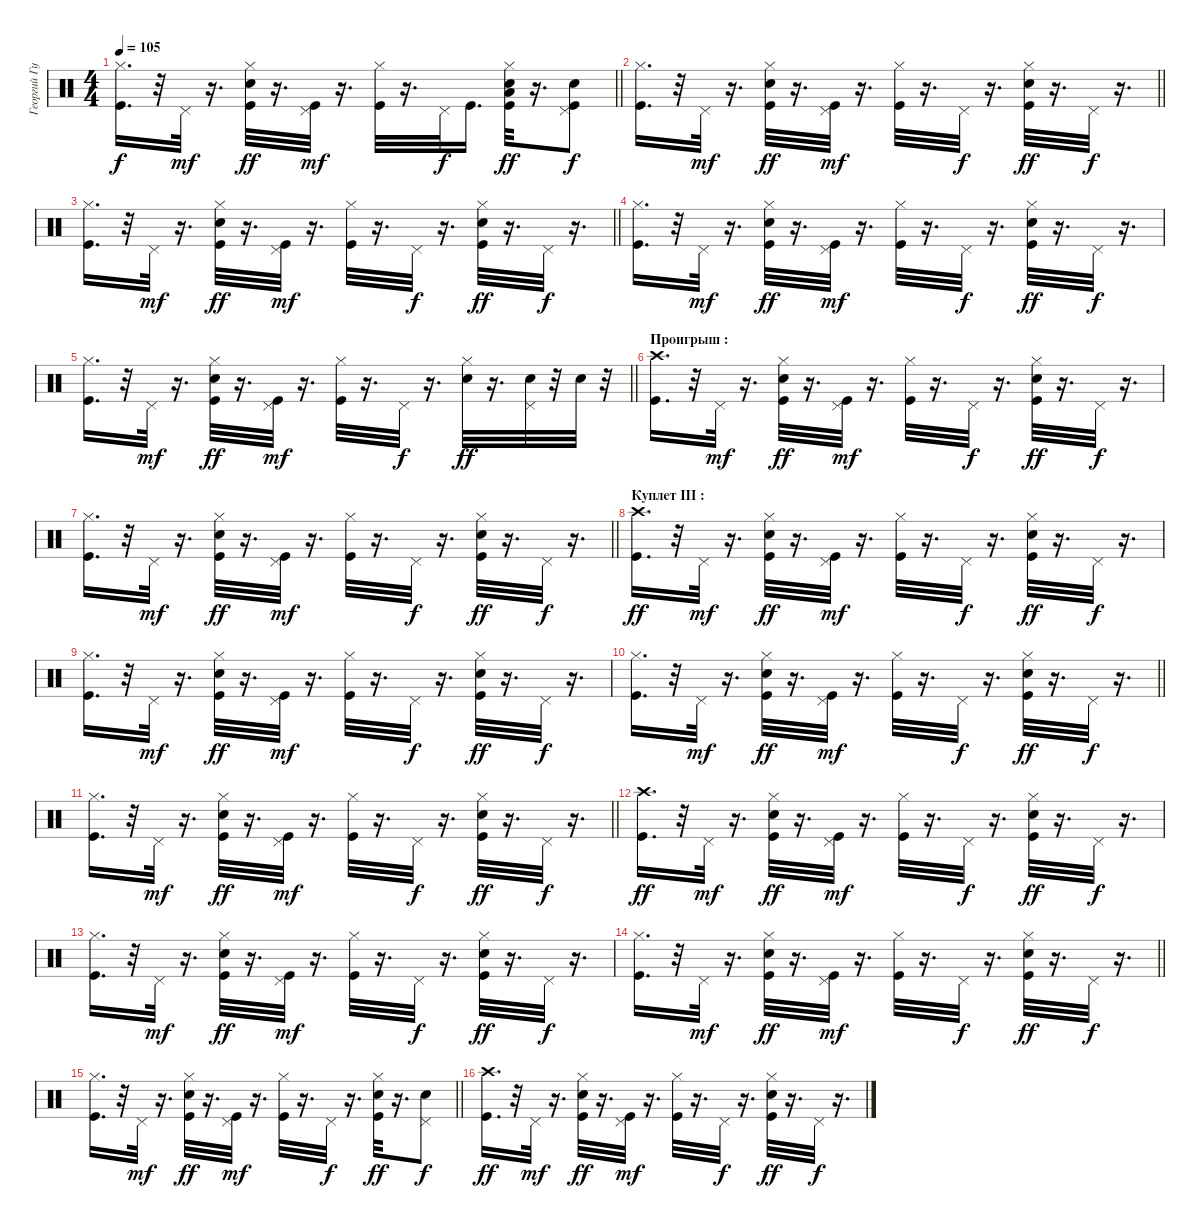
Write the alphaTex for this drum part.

\track ("Георгий Гурьянов" "Георгий Гу") {instrument percussion}
\staff {score}
\articulation defaults
\ts (4 4)
\tempo 105
\clef neutral
\barLineRight lightlight
\ks c
("Hi-Hat (closed)" "Kick (hit)").16{d dy f} r.32 "Pedal Hi-Hat (hit)".32{dy mf} r.16{d} ("Hi-Hat (closed)" "Snare (hit) 2" "Kick (hit)").32{dy ff} r.16{d} ("Pedal Hi-Hat (hit)" "Kick (hit)").32{dy mf} r.16{d} ("Hi-Hat (closed)" "Kick (hit)").32 r.16{d} "Pedal Hi-Hat (hit)".32{dy f} "Kick (hit)".16{d} ("Hi-Hat (closed)" "Snare (hit) 2" "Low Tom (hit)" "Kick (hit)").32{dy ff} r.16{d} ("Pedal Hi-Hat (hit)" "Snare (hit) 2" "Kick (hit)").8{dy f} |
\barLineRight lightlight
("Hi-Hat (closed)" "Kick (hit)").16{d} r.32 "Pedal Hi-Hat (hit)".32{dy mf} r.16{d} ("Hi-Hat (closed)" "Snare (hit) 2" "Kick (hit)").32{dy ff} r.16{d} ("Pedal Hi-Hat (hit)" "Kick (hit)").32{dy mf} r.16{d} ("Hi-Hat (closed)" "Kick (hit)").32 r.16{d} "Pedal Hi-Hat (hit)".32{dy f} r.16{d} ("Hi-Hat (closed)" "Snare (hit) 2" "Kick (hit)").32{dy ff} r.16{d} "Pedal Hi-Hat (hit)".32{dy f} r.16{d} |
\barLineRight lightlight
("Hi-Hat (closed)" "Kick (hit)").16{d} r.32 "Pedal Hi-Hat (hit)".32{dy mf} r.16{d} ("Hi-Hat (closed)" "Snare (hit) 2" "Kick (hit)").32{dy ff} r.16{d} ("Pedal Hi-Hat (hit)" "Kick (hit)").32{dy mf} r.16{d} ("Hi-Hat (closed)" "Kick (hit)").32 r.16{d} "Pedal Hi-Hat (hit)".32{dy f} r.16{d} ("Hi-Hat (closed)" "Snare (hit) 2" "Kick (hit)").32{dy ff} r.16{d} "Pedal Hi-Hat (hit)".32{dy f} r.16{d} |
("Hi-Hat (closed)" "Kick (hit)").16{d} r.32 "Pedal Hi-Hat (hit)".32{dy mf} r.16{d} ("Hi-Hat (closed)" "Snare (hit) 2" "Kick (hit)").32{dy ff} r.16{d} ("Pedal Hi-Hat (hit)" "Kick (hit)").32{dy mf} r.16{d} ("Hi-Hat (closed)" "Kick (hit)").32 r.16{d} "Pedal Hi-Hat (hit)".32{dy f} r.16{d} ("Hi-Hat (closed)" "Snare (hit) 2" "Kick (hit)").32{dy ff} r.16{d} "Pedal Hi-Hat (hit)".32{dy f} r.16{d} |
\barLineRight lightlight
("Hi-Hat (closed)" "Kick (hit)").16{d} r.32 "Pedal Hi-Hat (hit)".32{dy mf} r.16{d} ("Hi-Hat (closed)" "Snare (hit) 2" "Kick (hit)").32{dy ff} r.16{d} ("Pedal Hi-Hat (hit)" "Kick (hit)").32{dy mf} r.16{d} ("Hi-Hat (closed)" "Kick (hit)").32 r.16{d} "Pedal Hi-Hat (hit)".32{dy f} r.16{d} ("Hi-Hat (closed)" "Snare (hit) 2").32{dy ff} r.16{d} ("Pedal Hi-Hat (hit)" "Snare (hit) 2").32 r.32 "Snare (hit) 2".32 r.32 |
\section ("" "Проигрыш :")
("Crash high (hit)" "Kick (hit)").16{d} r.32 "Pedal Hi-Hat (hit)".32{dy mf} r.16{d} ("Hi-Hat (closed)" "Snare (hit) 2" "Kick (hit)").32{dy ff} r.16{d} ("Pedal Hi-Hat (hit)" "Kick (hit)").32{dy mf} r.16{d} ("Hi-Hat (closed)" "Kick (hit)").32 r.16{d} "Pedal Hi-Hat (hit)".32{dy f} r.16{d} ("Hi-Hat (closed)" "Snare (hit) 2" "Kick (hit)").32{dy ff} r.16{d} "Pedal Hi-Hat (hit)".32{dy f} r.16{d} |
\barLineRight lightlight
("Hi-Hat (closed)" "Kick (hit)").16{d} r.32 "Pedal Hi-Hat (hit)".32{dy mf} r.16{d} ("Hi-Hat (closed)" "Snare (hit) 2" "Kick (hit)").32{dy ff} r.16{d} ("Pedal Hi-Hat (hit)" "Kick (hit)").32{dy mf} r.16{d} ("Hi-Hat (closed)" "Kick (hit)").32 r.16{d} "Pedal Hi-Hat (hit)".32{dy f} r.16{d} ("Hi-Hat (closed)" "Snare (hit) 2" "Kick (hit)").32{dy ff} r.16{d} "Pedal Hi-Hat (hit)".32{dy f} r.16{d} |
\section ("" "Куплет III :")
("Crash high (hit)" "Kick (hit)").16{d dy ff} r.32 "Pedal Hi-Hat (hit)".32{dy mf} r.16{d} ("Hi-Hat (closed)" "Snare (hit) 2" "Kick (hit)").32{dy ff} r.16{d} ("Pedal Hi-Hat (hit)" "Kick (hit)").32{dy mf} r.16{d} ("Hi-Hat (closed)" "Kick (hit)").32 r.16{d} "Pedal Hi-Hat (hit)".32{dy f} r.16{d} ("Hi-Hat (closed)" "Snare (hit) 2" "Kick (hit)").32{dy ff} r.16{d} "Pedal Hi-Hat (hit)".32{dy f} r.16{d} |
("Hi-Hat (closed)" "Kick (hit)").16{d} r.32 "Pedal Hi-Hat (hit)".32{dy mf} r.16{d} ("Hi-Hat (closed)" "Snare (hit) 2" "Kick (hit)").32{dy ff} r.16{d} ("Pedal Hi-Hat (hit)" "Kick (hit)").32{dy mf} r.16{d} ("Hi-Hat (closed)" "Kick (hit)").32 r.16{d} "Pedal Hi-Hat (hit)".32{dy f} r.16{d} ("Hi-Hat (closed)" "Snare (hit) 2" "Kick (hit)").32{dy ff} r.16{d} "Pedal Hi-Hat (hit)".32{dy f} r.16{d} |
\barLineRight lightlight
("Hi-Hat (closed)" "Kick (hit)").16{d} r.32 "Pedal Hi-Hat (hit)".32{dy mf} r.16{d} ("Hi-Hat (closed)" "Snare (hit) 2" "Kick (hit)").32{dy ff} r.16{d} ("Pedal Hi-Hat (hit)" "Kick (hit)").32{dy mf} r.16{d} ("Hi-Hat (closed)" "Kick (hit)").32 r.16{d} "Pedal Hi-Hat (hit)".32{dy f} r.16{d} ("Hi-Hat (closed)" "Snare (hit) 2" "Kick (hit)").32{dy ff} r.16{d} "Pedal Hi-Hat (hit)".32{dy f} r.16{d} |
\barLineRight lightlight
("Hi-Hat (closed)" "Kick (hit)").16{d} r.32 "Pedal Hi-Hat (hit)".32{dy mf} r.16{d} ("Hi-Hat (closed)" "Snare (hit) 2" "Kick (hit)").32{dy ff} r.16{d} ("Pedal Hi-Hat (hit)" "Kick (hit)").32{dy mf} r.16{d} ("Hi-Hat (closed)" "Kick (hit)").32 r.16{d} "Pedal Hi-Hat (hit)".32{dy f} r.16{d} ("Hi-Hat (closed)" "Snare (hit) 2" "Kick (hit)").32{dy ff} r.16{d} "Pedal Hi-Hat (hit)".32{dy f} r.16{d} |
("Crash high (hit)" "Kick (hit)").16{d dy ff} r.32 "Pedal Hi-Hat (hit)".32{dy mf} r.16{d} ("Hi-Hat (closed)" "Snare (hit) 2" "Kick (hit)").32{dy ff} r.16{d} ("Pedal Hi-Hat (hit)" "Kick (hit)").32{dy mf} r.16{d} ("Hi-Hat (closed)" "Kick (hit)").32 r.16{d} "Pedal Hi-Hat (hit)".32{dy f} r.16{d} ("Hi-Hat (closed)" "Snare (hit) 2" "Kick (hit)").32{dy ff} r.16{d} "Pedal Hi-Hat (hit)".32{dy f} r.16{d} |
("Hi-Hat (closed)" "Kick (hit)").16{d} r.32 "Pedal Hi-Hat (hit)".32{dy mf} r.16{d} ("Hi-Hat (closed)" "Snare (hit) 2" "Kick (hit)").32{dy ff} r.16{d} ("Pedal Hi-Hat (hit)" "Kick (hit)").32{dy mf} r.16{d} ("Hi-Hat (closed)" "Kick (hit)").32 r.16{d} "Pedal Hi-Hat (hit)".32{dy f} r.16{d} ("Hi-Hat (closed)" "Snare (hit) 2" "Kick (hit)").32{dy ff} r.16{d} "Pedal Hi-Hat (hit)".32{dy f} r.16{d} |
\barLineRight lightlight
("Hi-Hat (closed)" "Kick (hit)").16{d} r.32 "Pedal Hi-Hat (hit)".32{dy mf} r.16{d} ("Hi-Hat (closed)" "Snare (hit) 2" "Kick (hit)").32{dy ff} r.16{d} ("Pedal Hi-Hat (hit)" "Kick (hit)").32{dy mf} r.16{d} ("Hi-Hat (closed)" "Kick (hit)").32 r.16{d} "Pedal Hi-Hat (hit)".32{dy f} r.16{d} ("Hi-Hat (closed)" "Snare (hit) 2" "Kick (hit)").32{dy ff} r.16{d} "Pedal Hi-Hat (hit)".32{dy f} r.16{d} |
\barLineRight lightlight
("Hi-Hat (closed)" "Kick (hit)").16{d} r.32 "Pedal Hi-Hat (hit)".32{dy mf} r.16{d} ("Hi-Hat (closed)" "Snare (hit) 2" "Kick (hit)").32{dy ff} r.16{d} ("Pedal Hi-Hat (hit)" "Kick (hit)").32{dy mf} r.16{d} ("Hi-Hat (closed)" "Kick (hit)").32 r.16{d} "Pedal Hi-Hat (hit)".32{dy f} r.16{d} ("Hi-Hat (closed)" "Snare (hit) 2" "Kick (hit)").32{dy ff} r.16{d} ("Pedal Hi-Hat (hit)" "Snare (hit) 2").8{dy f} |
("Crash high (hit)" "Kick (hit)").16{d dy ff} r.32 "Pedal Hi-Hat (hit)".32{dy mf} r.16{d} ("Hi-Hat (closed)" "Snare (hit) 2" "Kick (hit)").32{dy ff} r.16{d} ("Pedal Hi-Hat (hit)" "Kick (hit)").32{dy mf} r.16{d} ("Hi-Hat (closed)" "Kick (hit)").32 r.16{d} "Pedal Hi-Hat (hit)".32{dy f} r.16{d} ("Hi-Hat (closed)" "Snare (hit) 2" "Kick (hit)").32{dy ff} r.16{d} "Pedal Hi-Hat (hit)".32{dy f} r.16{d}
